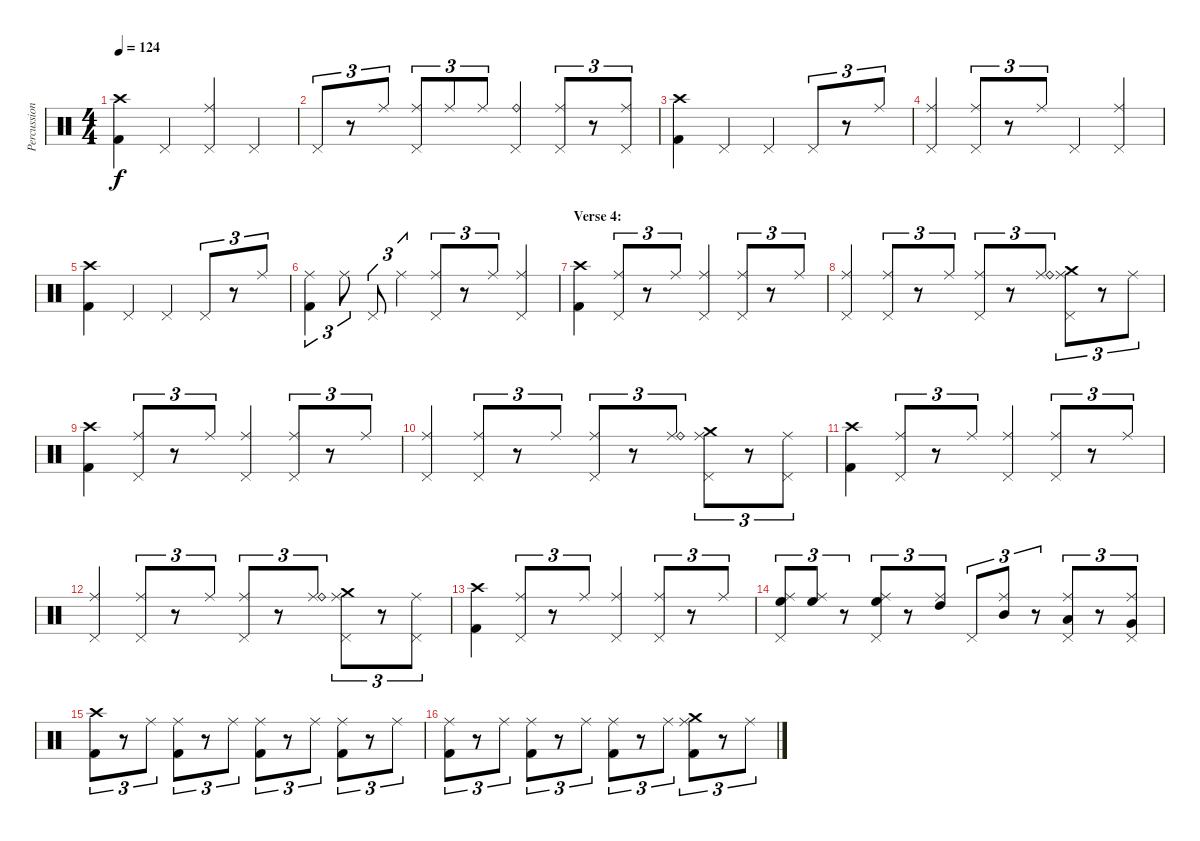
\track ("Percussion" "Percussion") {instrument percussion}
\staff {score}
\articulation defaults
\ts (4 4)
\tempo 124
\clef neutral
\ks c
("Crash high (hit)" "Kick (hit) 2").4{dy f} "Pedal Hi-Hat (hit)".4 ("Ride (middle)" "Pedal Hi-Hat (hit)").4 "Pedal Hi-Hat (hit)".4 |
"Pedal Hi-Hat (hit)".8{tu (3 2)} r.8{tu (3 2)} "Ride (middle)".8{tu (3 2)} ("Ride (middle)" "Pedal Hi-Hat (hit)").8{tu (3 2)} "Ride (middle)".8{tu (3 2)} "Ride (middle)".8{tu (3 2)} ("Ride (bell)" "Pedal Hi-Hat (hit)").4 ("Ride (middle)" "Pedal Hi-Hat (hit)").8{tu (3 2)} r.8{tu (3 2)} ("Ride (middle)" "Pedal Hi-Hat (hit)").8{tu (3 2)} |
("Crash high (hit)" "Kick (hit) 2").4 "Pedal Hi-Hat (hit)".4 "Pedal Hi-Hat (hit)".4 "Pedal Hi-Hat (hit)".8{tu (3 2)} r.8{tu (3 2)} "Ride (middle)".8{tu (3 2)} |
("Ride (middle)" "Pedal Hi-Hat (hit)").4 ("Ride (middle)" "Pedal Hi-Hat (hit)").8{tu (3 2)} r.8{tu (3 2)} "Ride (middle)".8{tu (3 2)} "Pedal Hi-Hat (hit)".4 ("Ride (middle)" "Pedal Hi-Hat (hit)").4 |
("Crash high (hit)" "Kick (hit) 2").4 "Pedal Hi-Hat (hit)".4 "Pedal Hi-Hat (hit)".4 "Pedal Hi-Hat (hit)".8{tu (3 2)} r.8{tu (3 2)} "Ride (middle)".8{tu (3 2)} |
("Ride (middle)" "Kick (hit) 2").4{tu (3 2)} "Ride (middle)".8{tu (3 2)} "Pedal Hi-Hat (hit)".8{tu (3 2)} "Ride (middle)".4{tu (3 2)} ("Ride (middle)" "Pedal Hi-Hat (hit)").8{tu (3 2)} r.8{tu (3 2)} "Ride (middle)".8{tu (3 2)} ("Ride (middle)" "Pedal Hi-Hat (hit)").4 |
\section ("" "Verse 4:")
("Crash high (hit)" "Kick (hit) 2").4 ("Ride (middle)" "Pedal Hi-Hat (hit)").8{tu (3 2)} r.8{tu (3 2)} "Ride (middle)".8{tu (3 2)} ("Ride (middle)" "Pedal Hi-Hat (hit)").4 ("Ride (middle)" "Pedal Hi-Hat (hit)").8{tu (3 2)} r.8{tu (3 2)} "Ride (middle)".8{tu (3 2)} |
("Ride (middle)" "Pedal Hi-Hat (hit)").4 ("Ride (middle)" "Pedal Hi-Hat (hit)").8{tu (3 2)} r.8{tu (3 2)} "Ride (middle)".8{tu (3 2)} ("Ride (middle)" "Pedal Hi-Hat (hit)").8{tu (3 2)} r.8{tu (3 2)} ("Ride (middle)" "Ride (bell)").8{tu (3 2)} ("Ride (middle)" "Crash medium (hit)" "Pedal Hi-Hat (hit)").8{tu (3 2)} r.8{tu (3 2)} "Ride (middle)".8{tu (3 2)} |
("Crash high (hit)" "Kick (hit) 2").4 ("Ride (middle)" "Pedal Hi-Hat (hit)").8{tu (3 2)} r.8{tu (3 2)} "Ride (middle)".8{tu (3 2)} ("Ride (middle)" "Pedal Hi-Hat (hit)").4 ("Ride (middle)" "Pedal Hi-Hat (hit)").8{tu (3 2)} r.8{tu (3 2)} "Ride (middle)".8{tu (3 2)} |
("Ride (middle)" "Pedal Hi-Hat (hit)").4 ("Ride (middle)" "Pedal Hi-Hat (hit)").8{tu (3 2)} r.8{tu (3 2)} "Ride (middle)".8{tu (3 2)} ("Ride (middle)" "Pedal Hi-Hat (hit)").8{tu (3 2)} r.8{tu (3 2)} ("Ride (middle)" "Ride (bell)").8{tu (3 2)} ("Ride (middle)" "Crash medium (hit)" "Pedal Hi-Hat (hit)").8{tu (3 2)} r.8{tu (3 2)} ("Ride (middle)" "Pedal Hi-Hat (hit)").8{tu (3 2)} |
("Crash high (hit)" "Kick (hit) 2").4 ("Ride (middle)" "Pedal Hi-Hat (hit)").8{tu (3 2)} r.8{tu (3 2)} "Ride (middle)".8{tu (3 2)} ("Ride (middle)" "Pedal Hi-Hat (hit)").4 ("Ride (middle)" "Pedal Hi-Hat (hit)").8{tu (3 2)} r.8{tu (3 2)} "Ride (middle)".8{tu (3 2)} |
("Ride (middle)" "Pedal Hi-Hat (hit)").4 ("Ride (middle)" "Pedal Hi-Hat (hit)").8{tu (3 2)} r.8{tu (3 2)} "Ride (middle)".8{tu (3 2)} ("Ride (middle)" "Pedal Hi-Hat (hit)").8{tu (3 2)} r.8{tu (3 2)} ("Ride (middle)" "Ride (bell)").8{tu (3 2)} ("Ride (middle)" "Crash medium (hit)" "Pedal Hi-Hat (hit)").8{tu (3 2)} r.8{tu (3 2)} ("Ride (middle)" "Pedal Hi-Hat (hit)").8{tu (3 2)} |
("Crash high (hit)" "Kick (hit) 2").4 ("Ride (middle)" "Pedal Hi-Hat (hit)").8{tu (3 2)} r.8{tu (3 2)} "Ride (middle)".8{tu (3 2)} ("Ride (middle)" "Pedal Hi-Hat (hit)").4 ("Ride (middle)" "Pedal Hi-Hat (hit)").8{tu (3 2)} r.8{tu (3 2)} "Ride (middle)".8{tu (3 2)} |
("Ride (middle)" "High Floor Tom (hit)" "Pedal Hi-Hat (hit)").8{tu (3 2)} ("Ride (middle)" "High Floor Tom (hit)").8{tu (3 2)} r.8{tu (3 2)} ("Ride (middle)" "High Floor Tom (hit)" "Pedal Hi-Hat (hit)").8{tu (3 2)} r.8{tu (3 2)} ("Ride (middle)" "High Tom (hit)").8{tu (3 2)} "Pedal Hi-Hat (hit)".8{tu (3 2)} ("Ride (middle)" "Mid Tom (hit)").8{tu (3 2)} r.8{tu (3 2)} ("Ride (middle)" "Low Tom (hit)" "Pedal Hi-Hat (hit)").8{tu (3 2)} r.8{tu (3 2)} ("Ride (middle)" "Very Low Tom (hit)" "Pedal Hi-Hat (hit)").8{tu (3 2)} |
("Crash high (hit)" "Kick (hit) 2").8{tu (3 2)} r.8{tu (3 2)} "Ride (middle)".8{tu (3 2)} ("Ride (middle)" "Kick (hit) 2").8{tu (3 2)} r.8{tu (3 2)} "Ride (middle)".8{tu (3 2)} ("Ride (middle)" "Kick (hit) 2").8{tu (3 2)} r.8{tu (3 2)} "Ride (middle)".8{tu (3 2)} ("Ride (middle)" "Kick (hit) 2").8{tu (3 2)} r.8{tu (3 2)} "Ride (middle)".8{tu (3 2)} |
("Ride (middle)" "Kick (hit) 2").8{tu (3 2)} r.8{tu (3 2)} "Ride (middle)".8{tu (3 2)} ("Ride (middle)" "Kick (hit) 2").8{tu (3 2)} r.8{tu (3 2)} "Ride (middle)".8{tu (3 2)} ("Ride (middle)" "Kick (hit) 2").8{tu (3 2)} r.8{tu (3 2)} "Ride (middle)".8{tu (3 2)} ("Ride (middle)" "Crash medium (hit)" "Kick (hit) 2").8{tu (3 2)} r.8{tu (3 2)} "Ride (middle)".8{tu (3 2)}
